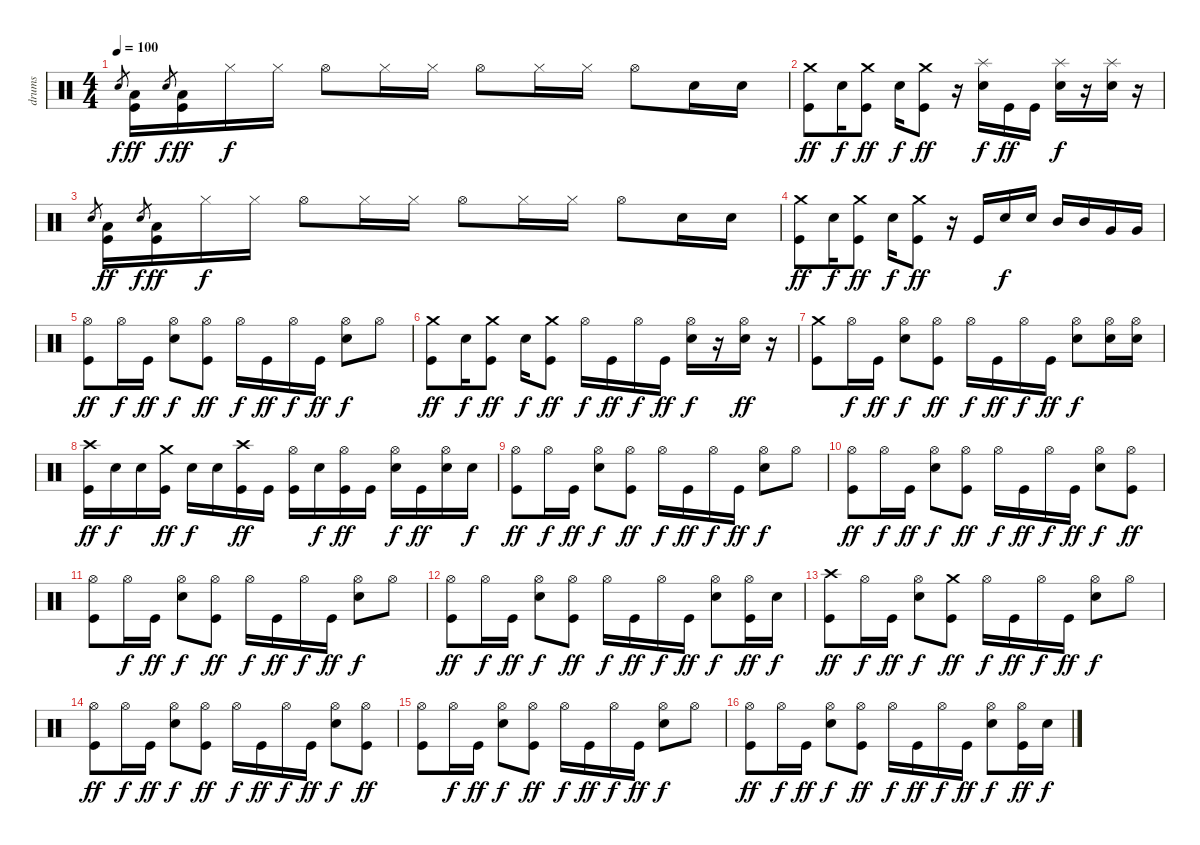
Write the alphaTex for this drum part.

\track ("drums" "drums") {instrument percussion}
\staff {score}
\articulation defaults
\ts (4 4)
\tempo 100
\clef neutral
\ks c "Snare (hit) 2".8{gr dy f}
("Low Floor Tom (hit)" "Kick (hit)").16{dy ff} "Snare (hit) 2".8{gr dy f} ("Low Floor Tom (hit)" "Kick (hit)").16{dy ff} "Hi-Hat (closed)".16{dy f} "Hi-Hat (closed)".16 "Hi-Hat (open)".8 "Hi-Hat (closed)".16 "Hi-Hat (closed)".16 "Hi-Hat (open)".8 "Hi-Hat (closed)".16 "Hi-Hat (closed)".16 "Hi-Hat (open)".8 "Snare (hit) 2".16 "Snare (hit) 2".16 |
("Crash medium (hit)" "Kick (hit)").8{dy ff} "Snare (hit) 2".16{dy f} ("Crash medium (hit)" "Kick (hit)").8{dy ff} "Snare (hit) 2".16{dy f} ("Crash medium (hit)" "Kick (hit)").8{dy ff} r.16 ("Splash (hit)" "Snare (hit) 2").16{dy f} "Kick (hit)".16{dy ff} "Kick (hit)".16 ("Splash (hit)" "Snare (hit) 2").16{dy f} r.16 ("Splash (hit)" "Snare (hit) 2").16 r.16 |
"Snare (hit) 2".8{gr} ("Low Floor Tom (hit)" "Kick (hit)").16{dy ff} "Snare (hit) 2".8{gr dy f} ("Low Floor Tom (hit)" "Kick (hit)").16{dy ff} "Hi-Hat (closed)".16{dy f} "Hi-Hat (closed)".16 "Hi-Hat (open)".8 "Hi-Hat (closed)".16 "Hi-Hat (closed)".16 "Hi-Hat (open)".8 "Hi-Hat (closed)".16 "Hi-Hat (closed)".16 "Hi-Hat (open)".8 "Snare (hit) 2".16 "Snare (hit) 2".16 |
("Crash medium (hit)" "Kick (hit)").8{dy ff} "Snare (hit) 2".16{dy f} ("Crash medium (hit)" "Kick (hit)").8{dy ff} "Snare (hit) 2".16{dy f} ("Crash medium (hit)" "Kick (hit)").8{dy ff} r.16 "Kick (hit)".16 "Snare (hit) 2".16{dy f} "Snare (hit) 2".16 "Mid Tom (hit)".16 "Mid Tom (hit)".16 "Very Low Tom (hit)".16 "Very Low Tom (hit)".16 |
("Hi-Hat (open)" "Kick (hit)").8{dy ff} "Hi-Hat (open)".16{dy f} "Kick (hit)".16{dy ff} ("Hi-Hat (open)" "Snare (hit) 2").8{dy f} ("Hi-Hat (open)" "Kick (hit)").8{dy ff} "Hi-Hat (open)".16{dy f} "Kick (hit)".16{dy ff} "Hi-Hat (open)".16{dy f} "Kick (hit)".16{dy ff} ("Hi-Hat (open)" "Snare (hit) 2").8{dy f} "Hi-Hat (open)".8 |
("Crash medium (hit)" "Kick (hit)").8{dy ff} "Snare (hit) 2".16{dy f} ("Crash medium (hit)" "Kick (hit)").8{dy ff} "Snare (hit) 2".16{dy f} ("Crash medium (hit)" "Kick (hit)").8{dy ff} "Hi-Hat (open)".16{dy f} "Kick (hit)".16{dy ff} "Hi-Hat (open)".16{dy f} "Kick (hit)".16{dy ff} ("Hi-Hat (open)" "Snare (hit) 2").16{dy f} r.16 ("Hi-Hat (open)" "Snare (hit) 2").16{dy ff} r.16 |
("Crash medium (hit)" "Kick (hit)").8 "Hi-Hat (open)".16{dy f} "Kick (hit)".16{dy ff} ("Hi-Hat (open)" "Snare (hit) 2").8{dy f} ("Hi-Hat (open)" "Kick (hit)").8{dy ff} "Hi-Hat (open)".16{dy f} "Kick (hit)".16{dy ff} "Hi-Hat (open)".16{dy f} "Kick (hit)".16{dy ff} ("Hi-Hat (open)" "Snare (hit) 2").8{dy f} ("Hi-Hat (open)" "Snare (hit) 2").16 ("Hi-Hat (open)" "Snare (hit) 2").16 |
("Crash high (hit)" "Kick (hit)").16{dy ff} "Snare (hit) 2".16{dy f} "Snare (hit) 2".16 ("Crash medium (hit)" "Kick (hit)").16{dy ff} "Snare (hit) 2".16{dy f} "Snare (hit) 2".16 ("Crash high (hit)" "Kick (hit)").16{dy ff} "Kick (hit)".16 ("Hi-Hat (open)" "Kick (hit)").16 "Snare (hit) 2".16{dy f} ("Hi-Hat (open)" "Kick (hit)").16{dy ff} "Kick (hit)".16 ("Hi-Hat (open)" "Snare (hit) 2").16{dy f} "Kick (hit)".16{dy ff} ("Hi-Hat (open)" "Snare (hit) 2").16 "Snare (hit) 2".16{dy f} |
("Hi-Hat (open)" "Kick (hit)").8{dy ff} "Hi-Hat (open)".16{dy f} "Kick (hit)".16{dy ff} ("Hi-Hat (open)" "Snare (hit) 2").8{dy f} ("Hi-Hat (open)" "Kick (hit)").8{dy ff} "Hi-Hat (open)".16{dy f} "Kick (hit)".16{dy ff} "Hi-Hat (open)".16{dy f} "Kick (hit)".16{dy ff} ("Hi-Hat (open)" "Snare (hit) 2").8{dy f} "Hi-Hat (open)".8 |
("Hi-Hat (open)" "Kick (hit)").8{dy ff} "Hi-Hat (open)".16{dy f} "Kick (hit)".16{dy ff} ("Hi-Hat (open)" "Snare (hit) 2").8{dy f} ("Hi-Hat (open)" "Kick (hit)").8{dy ff} "Hi-Hat (open)".16{dy f} "Kick (hit)".16{dy ff} "Hi-Hat (open)".16{dy f} "Kick (hit)".16{dy ff} ("Hi-Hat (open)" "Snare (hit) 2").8{dy f} ("Hi-Hat (open)" "Kick (hit)").8{dy ff} |
("Hi-Hat (open)" "Kick (hit)").8 "Hi-Hat (open)".16{dy f} "Kick (hit)".16{dy ff} ("Hi-Hat (open)" "Snare (hit) 2").8{dy f} ("Hi-Hat (open)" "Kick (hit)").8{dy ff} "Hi-Hat (open)".16{dy f} "Kick (hit)".16{dy ff} "Hi-Hat (open)".16{dy f} "Kick (hit)".16{dy ff} ("Hi-Hat (open)" "Snare (hit) 2").8{dy f} "Hi-Hat (open)".8 |
("Hi-Hat (open)" "Kick (hit)").8{dy ff} "Hi-Hat (open)".16{dy f} "Kick (hit)".16{dy ff} ("Hi-Hat (open)" "Snare (hit) 2").8{dy f} ("Hi-Hat (open)" "Kick (hit)").8{dy ff} "Hi-Hat (open)".16{dy f} "Kick (hit)".16{dy ff} "Hi-Hat (open)".16{dy f} "Kick (hit)".16{dy ff} ("Hi-Hat (open)" "Snare (hit) 2").8{dy f} ("Hi-Hat (open)" "Kick (hit)").16{dy ff} "Snare (hit) 2".16{dy f} |
("Crash high (hit)" "Kick (hit)").8{dy ff} "Hi-Hat (open)".16{dy f} "Kick (hit)".16{dy ff} ("Hi-Hat (open)" "Snare (hit) 2").8{dy f} ("Crash medium (hit)" "Kick (hit)").8{dy ff} "Hi-Hat (open)".16{dy f} "Kick (hit)".16{dy ff} "Hi-Hat (open)".16{dy f} "Kick (hit)".16{dy ff} ("Hi-Hat (open)" "Snare (hit) 2").8{dy f} "Hi-Hat (open)".8 |
("Hi-Hat (open)" "Kick (hit)").8{dy ff} "Hi-Hat (open)".16{dy f} "Kick (hit)".16{dy ff} ("Hi-Hat (open)" "Snare (hit) 2").8{dy f} ("Hi-Hat (open)" "Kick (hit)").8{dy ff} "Hi-Hat (open)".16{dy f} "Kick (hit)".16{dy ff} "Hi-Hat (open)".16{dy f} "Kick (hit)".16{dy ff} ("Hi-Hat (open)" "Snare (hit) 2").8{dy f} ("Hi-Hat (open)" "Kick (hit)").8{dy ff} |
("Hi-Hat (open)" "Kick (hit)").8 "Hi-Hat (open)".16{dy f} "Kick (hit)".16{dy ff} ("Hi-Hat (open)" "Snare (hit) 2").8{dy f} ("Hi-Hat (open)" "Kick (hit)").8{dy ff} "Hi-Hat (open)".16{dy f} "Kick (hit)".16{dy ff} "Hi-Hat (open)".16{dy f} "Kick (hit)".16{dy ff} ("Hi-Hat (open)" "Snare (hit) 2").8{dy f} "Hi-Hat (open)".8 |
("Hi-Hat (open)" "Kick (hit)").8{dy ff} "Hi-Hat (open)".16{dy f} "Kick (hit)".16{dy ff} ("Hi-Hat (open)" "Snare (hit) 2").8{dy f} ("Hi-Hat (open)" "Kick (hit)").8{dy ff} "Hi-Hat (open)".16{dy f} "Kick (hit)".16{dy ff} "Hi-Hat (open)".16{dy f} "Kick (hit)".16{dy ff} ("Hi-Hat (open)" "Snare (hit) 2").8{dy f} ("Hi-Hat (open)" "Kick (hit)").16{dy ff} "Snare (hit) 2".16{dy f}
